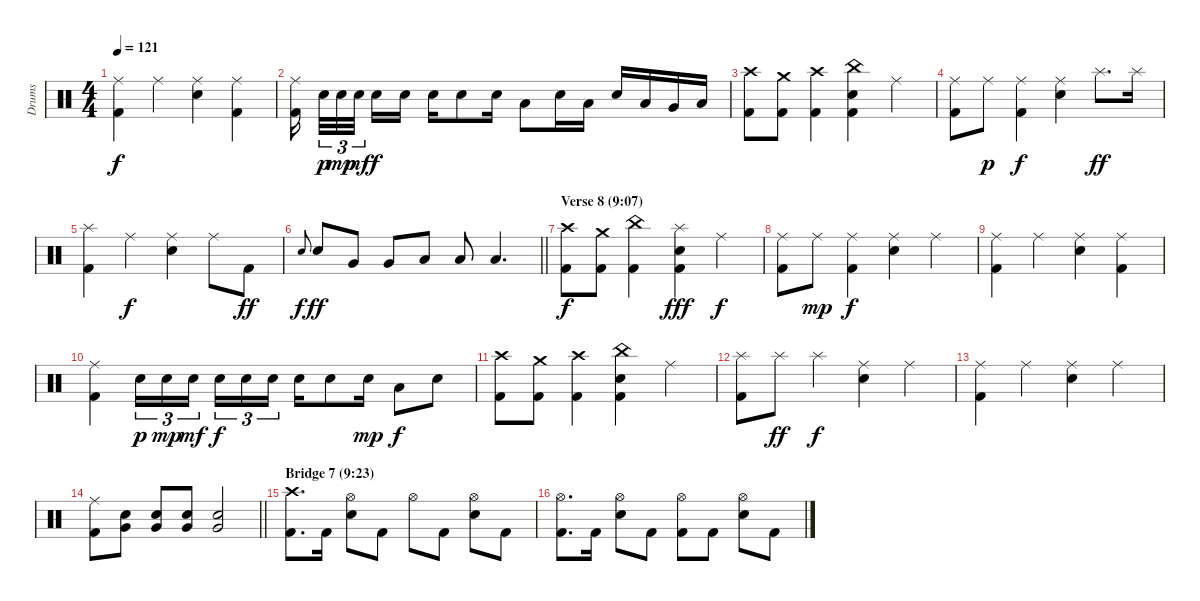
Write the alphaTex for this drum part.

\track ("Drums" "Drums") {instrument percussion}
\staff {score}
\articulation defaults
\ts (4 4)
\tempo 121
\clef neutral
\ks c
("Ride (middle)" "Kick (hit) 2").4{dy f} "Ride (middle)".4 ("Ride (middle)" "Electric Snare (hit)").4 ("Ride (middle)" "Kick (hit) 2").4 |
("Ride (middle)" "Kick (hit) 2").16{beam splitsecondary} "Electric Snare (hit)".32{tu (3 2) dy p} "Electric Snare (hit)".32{tu (3 2) dy mp} "Electric Snare (hit)".32{tu (3 2) dy mf beam splitsecondary} "Electric Snare (hit)".16{dy f} "Electric Snare (hit)".16 "Electric Snare (hit)".16 "Electric Snare (hit)".8 "Electric Snare (hit)".16 "Low Tom (hit)".8 "Electric Snare (hit)".16 "Low Tom (hit)".16 "Electric Snare (hit)".16 "Low Tom (hit)".16 "Very Low Tom (hit)".16 "Low Floor Tom (hit)".16 |
("Crash high (hit)" "Kick (hit) 2").8 ("Crash medium (hit)" "Kick (hit) 2").8 ("Crash high (hit)" "Kick (hit) 2").4 ("China (hit)" "Electric Snare (hit)" "Kick (hit) 2").4 "Ride (middle)".4 |
("Ride (middle)" "Kick (hit) 2").8 "Ride (middle)".8{dy p} ("Ride (middle)" "Kick (hit) 2").4{dy f} ("Ride (middle)" "Electric Snare (hit)").4 "Splash (hit)".8{d dy ff} "Splash (hit)".16 |
("Splash (hit)" "Kick (hit) 2").4 "Ride (middle)".4{dy f} ("Ride (middle)" "Electric Snare (hit)").4 "Ride (middle)".8 "Kick (hit) 2".8{dy ff} |
\barLineRight lightlight "Electric Snare (hit)".8{gr onbeat dy f} "Electric Snare (hit)".8{dy ff} "Very Low Tom (hit)".8 "Very Low Tom (hit)".8 "Low Floor Tom (hit)".8 "Low Floor Tom (hit)".8 "Low Floor Tom (hit)".4{d}
|
\section ("" "Verse 8 (9:07)")
("Crash high (hit)" "Kick (hit) 2").8{dy f} ("Crash medium (hit)" "Kick (hit) 2").8 ("China (hit)" "Kick (hit) 2").4 ("Splash (hit)" "Electric Snare (hit)" "Kick (hit) 2").4{dy fff} "Ride (middle)".4{dy f} |
("Ride (middle)" "Kick (hit) 2").8 "Ride (middle)".8{dy mp} ("Ride (middle)" "Kick (hit) 2").4{dy f} ("Ride (middle)" "Electric Snare (hit)").4 "Ride (middle)".4 |
("Ride (middle)" "Kick (hit) 2").4 "Ride (middle)".4 ("Ride (middle)" "Electric Snare (hit)").4 ("Ride (middle)" "Kick (hit) 2").4 |
("Ride (middle)" "Kick (hit) 2").4 "Electric Snare (hit)".16{tu (3 2) dy p} "Electric Snare (hit)".16{tu (3 2) dy mp} "Electric Snare (hit)".16{tu (3 2) dy mf beam splitsecondary} "Electric Snare (hit)".16{tu (3 2) dy f} "Electric Snare (hit)".16{tu (3 2)} "Electric Snare (hit)".16{tu (3 2)} "Electric Snare (hit)".16 "Electric Snare (hit)".8 "Electric Snare (hit)".16{dy mp} "Low Tom (hit)".8{dy f} "Electric Snare (hit)".8 |
("Crash high (hit)" "Kick (hit) 2").8 ("Crash medium (hit)" "Kick (hit) 2").8 ("Crash high (hit)" "Kick (hit) 2").4 ("China (hit)" "Electric Snare (hit)" "Kick (hit) 2").4 "Ride (middle)".4 |
("Splash (hit)" "Kick (hit) 2").8 "Splash (hit)".8{dy ff} "Splash (hit)".4{dy f} ("Ride (middle)" "Electric Snare (hit)").4 "Ride (middle)".4 |
("Ride (middle)" "Kick (hit) 2").4 "Ride (middle)".4 ("Ride (middle)" "Electric Snare (hit)").4 "Ride (middle)".4 |
\barLineRight lightlight
("Ride (middle)" "Kick (hit) 2").8 ("Electric Snare (hit)" "Very Low Tom (hit)").8 ("Electric Snare (hit)" "Very Low Tom (hit)").8 ("Electric Snare (hit)" "Very Low Tom (hit)").8 ("Electric Snare (hit)" "Very Low Tom (hit)").2 |
\section ("" "Bridge 7 (9:23)")
("Crash high (hit)" "Kick (hit) 2").8{d} "Kick (hit) 2".16 ("Hi-Hat (open)" "Electric Snare (hit)").8 "Kick (hit) 2".8 "Hi-Hat (open)".8 "Kick (hit) 2".8 ("Hi-Hat (open)" "Electric Snare (hit)").8 "Kick (hit) 2".8 |
("Hi-Hat (open)" "Kick (hit) 2").8{d} "Kick (hit) 2".16 ("Hi-Hat (open)" "Electric Snare (hit)").8 "Kick (hit) 2".8 ("Hi-Hat (open)" "Kick (hit) 2").8 "Kick (hit) 2".8 ("Hi-Hat (open)" "Electric Snare (hit)").8 "Kick (hit) 2".8
